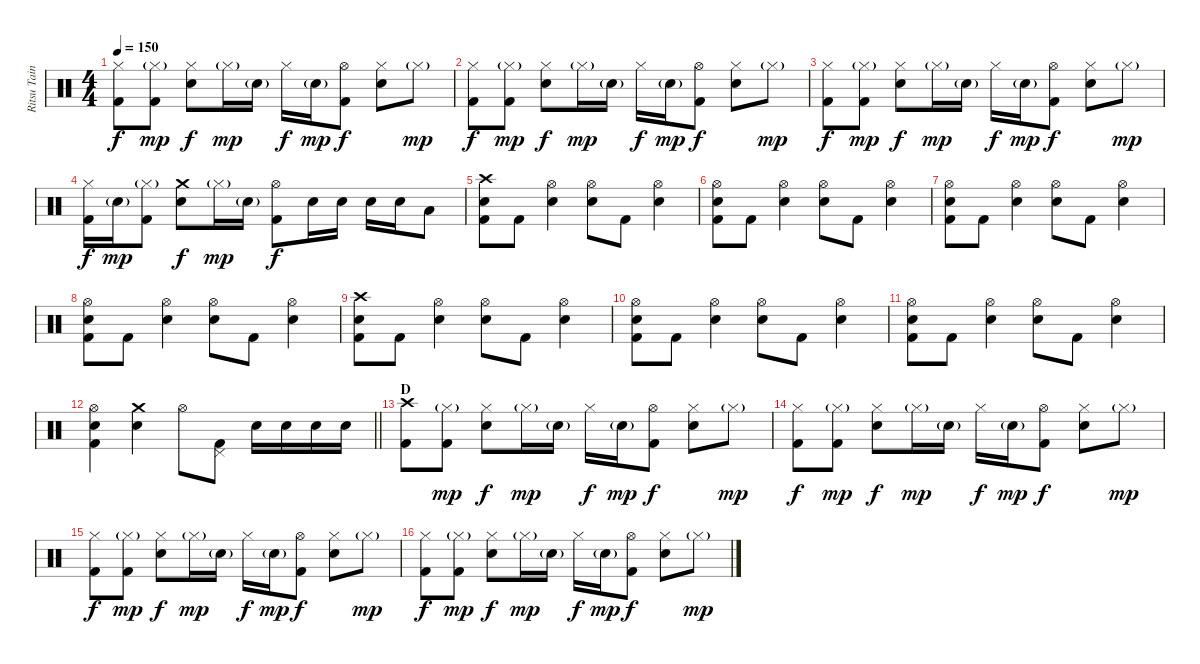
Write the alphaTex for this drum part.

\track ("Ritsu Tainaka" "Ritsu Tain") {instrument percussion}
\staff {score}
\articulation defaults
\ts (4 4)
\tempo 150
\clef neutral
\ks c
("Hi-Hat (closed)" "Kick (hit) 2").8{dy f} ("Hi-Hat (closed)"{g} "Kick (hit) 2").8{dy mp} ("Hi-Hat (closed)" "Electric Snare (hit)").8{dy f} "Hi-Hat (closed)"{g}.16{dy mp} "Electric Snare (hit)"{g}.16 "Hi-Hat (closed)".16{dy f} "Electric Snare (hit)"{g}.16{dy mp} ("Hi-Hat (open)" "Kick (hit) 2").8{dy f} ("Hi-Hat (closed)" "Electric Snare (hit)").8 "Hi-Hat (closed)"{g}.8{dy mp} |
("Hi-Hat (closed)" "Kick (hit) 2").8{dy f} ("Hi-Hat (closed)"{g} "Kick (hit) 2").8{dy mp} ("Hi-Hat (closed)" "Electric Snare (hit)").8{dy f} "Hi-Hat (closed)"{g}.16{dy mp} "Electric Snare (hit)"{g}.16 "Hi-Hat (closed)".16{dy f} "Electric Snare (hit)"{g}.16{dy mp} ("Hi-Hat (open)" "Kick (hit) 2").8{dy f} ("Hi-Hat (closed)" "Electric Snare (hit)").8 "Hi-Hat (closed)"{g}.8{dy mp} |
("Hi-Hat (closed)" "Kick (hit) 2").8{dy f} ("Hi-Hat (closed)"{g} "Kick (hit) 2").8{dy mp} ("Hi-Hat (closed)" "Electric Snare (hit)").8{dy f} "Hi-Hat (closed)"{g}.16{dy mp} "Electric Snare (hit)"{g}.16 "Hi-Hat (closed)".16{dy f} "Electric Snare (hit)"{g}.16{dy mp} ("Hi-Hat (open)" "Kick (hit) 2").8{dy f} ("Hi-Hat (closed)" "Electric Snare (hit)").8 "Hi-Hat (closed)"{g}.8{dy mp} |
("Hi-Hat (closed)" "Kick (hit) 2").16{dy f} "Electric Snare (hit)"{g}.16{dy mp} ("Hi-Hat (closed)"{g} "Kick (hit) 2").8 ("Crash medium (hit)" "Electric Snare (hit)").8{dy f} "Hi-Hat (closed)"{g}.16{dy mp} "Electric Snare (hit)"{g}.16 ("Hi-Hat (open)" "Kick (hit) 2").8{dy f} "Electric Snare (hit)".16 "Electric Snare (hit)".16 "Electric Snare (hit)".16 "Electric Snare (hit)".16 "Low Tom (hit)".8 |
("Crash high (hit)" "Electric Snare (hit)" "Kick (hit) 2").8 "Kick (hit) 2".8 ("Hi-Hat (open)" "Electric Snare (hit)").4 ("Hi-Hat (open)" "Electric Snare (hit)").8 "Kick (hit) 2".8 ("Hi-Hat (open)" "Electric Snare (hit)").4 |
("Hi-Hat (open)" "Electric Snare (hit)" "Kick (hit) 2").8 "Kick (hit) 2".8 ("Hi-Hat (open)" "Electric Snare (hit)").4 ("Hi-Hat (open)" "Electric Snare (hit)").8 "Kick (hit) 2".8 ("Hi-Hat (open)" "Electric Snare (hit)").4 |
("Hi-Hat (open)" "Electric Snare (hit)" "Kick (hit) 2").8 "Kick (hit) 2".8 ("Hi-Hat (open)" "Electric Snare (hit)").4 ("Hi-Hat (open)" "Electric Snare (hit)").8 "Kick (hit) 2".8 ("Hi-Hat (open)" "Electric Snare (hit)").4 |
("Hi-Hat (open)" "Electric Snare (hit)" "Kick (hit) 2").8 "Kick (hit) 2".8 ("Hi-Hat (open)" "Electric Snare (hit)").4 ("Hi-Hat (open)" "Electric Snare (hit)").8 "Kick (hit) 2".8 ("Hi-Hat (open)" "Electric Snare (hit)").4 |
("Crash high (hit)" "Electric Snare (hit)" "Kick (hit) 2").8 "Kick (hit) 2".8 ("Hi-Hat (open)" "Electric Snare (hit)").4 ("Hi-Hat (open)" "Electric Snare (hit)").8 "Kick (hit) 2".8 ("Hi-Hat (open)" "Electric Snare (hit)").4 |
("Hi-Hat (open)" "Electric Snare (hit)" "Kick (hit) 2").8 "Kick (hit) 2".8 ("Hi-Hat (open)" "Electric Snare (hit)").4 ("Hi-Hat (open)" "Electric Snare (hit)").8 "Kick (hit) 2".8 ("Hi-Hat (open)" "Electric Snare (hit)").4 |
("Hi-Hat (open)" "Electric Snare (hit)" "Kick (hit) 2").8 "Kick (hit) 2".8 ("Hi-Hat (open)" "Electric Snare (hit)").4 ("Hi-Hat (open)" "Electric Snare (hit)").8 "Kick (hit) 2".8 ("Hi-Hat (open)" "Electric Snare (hit)").4 |
\barLineRight lightlight
("Hi-Hat (open)" "Electric Snare (hit)" "Kick (hit) 2").4 ("Crash medium (hit)" "Electric Snare (hit)").4 "Hi-Hat (open)".8 ("Pedal Hi-Hat (hit)" "Kick (hit) 2").8 "Electric Snare (hit)".16 "Electric Snare (hit)".16 "Electric Snare (hit)".16 "Electric Snare (hit)".16 |
\section ("" "D")
("Crash high (hit)" "Kick (hit) 2").8 ("Hi-Hat (closed)"{g} "Kick (hit) 2").8{dy mp} ("Hi-Hat (closed)" "Electric Snare (hit)").8{dy f} "Hi-Hat (closed)"{g}.16{dy mp} "Electric Snare (hit)"{g}.16 "Hi-Hat (closed)".16{dy f} "Electric Snare (hit)"{g}.16{dy mp} ("Hi-Hat (open)" "Kick (hit) 2").8{dy f} ("Hi-Hat (closed)" "Electric Snare (hit)").8 "Hi-Hat (closed)"{g}.8{dy mp} |
("Hi-Hat (closed)" "Kick (hit) 2").8{dy f} ("Hi-Hat (closed)"{g} "Kick (hit) 2").8{dy mp} ("Hi-Hat (closed)" "Electric Snare (hit)").8{dy f} "Hi-Hat (closed)"{g}.16{dy mp} "Electric Snare (hit)"{g}.16 "Hi-Hat (closed)".16{dy f} "Electric Snare (hit)"{g}.16{dy mp} ("Hi-Hat (open)" "Kick (hit) 2").8{dy f} ("Hi-Hat (closed)" "Electric Snare (hit)").8 "Hi-Hat (closed)"{g}.8{dy mp} |
("Hi-Hat (closed)" "Kick (hit) 2").8{dy f} ("Hi-Hat (closed)"{g} "Kick (hit) 2").8{dy mp} ("Hi-Hat (closed)" "Electric Snare (hit)").8{dy f} "Hi-Hat (closed)"{g}.16{dy mp} "Electric Snare (hit)"{g}.16 "Hi-Hat (closed)".16{dy f} "Electric Snare (hit)"{g}.16{dy mp} ("Hi-Hat (open)" "Kick (hit) 2").8{dy f} ("Hi-Hat (closed)" "Electric Snare (hit)").8 "Hi-Hat (closed)"{g}.8{dy mp} |
("Hi-Hat (closed)" "Kick (hit) 2").8{dy f} ("Hi-Hat (closed)"{g} "Kick (hit) 2").8{dy mp} ("Hi-Hat (closed)" "Electric Snare (hit)").8{dy f} "Hi-Hat (closed)"{g}.16{dy mp} "Electric Snare (hit)"{g}.16 "Hi-Hat (closed)".16{dy f} "Electric Snare (hit)"{g}.16{dy mp} ("Hi-Hat (open)" "Kick (hit) 2").8{dy f} ("Hi-Hat (closed)" "Electric Snare (hit)").8 "Hi-Hat (closed)"{g}.8{dy mp}
